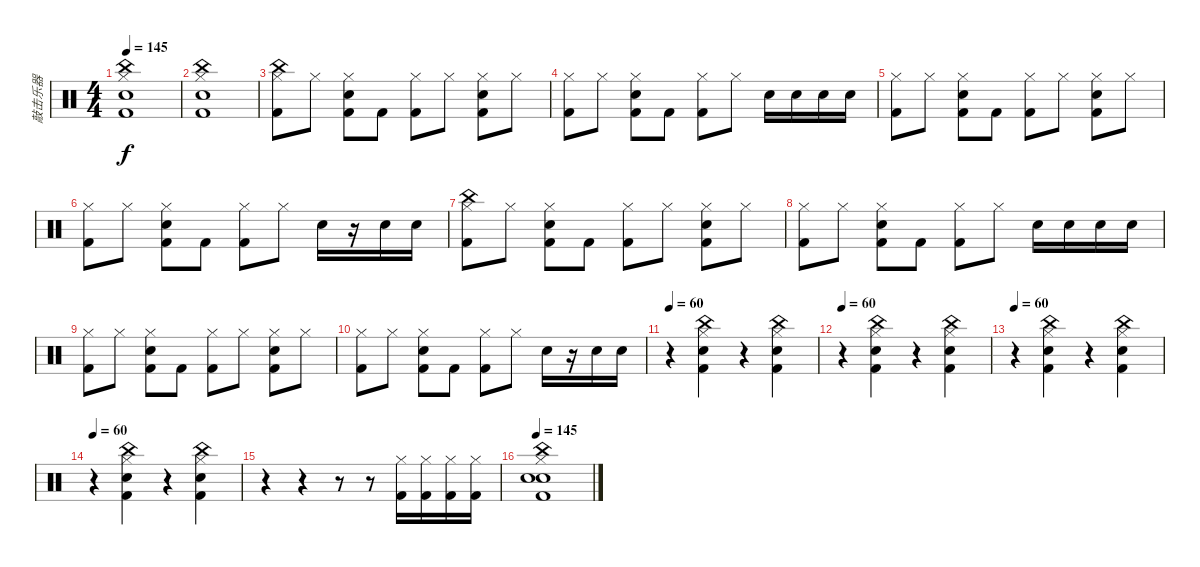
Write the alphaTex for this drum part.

\track ("敲击乐器" "敲击乐器") {instrument percussion}
\staff {score}
\articulation defaults
\ts (4 4)
\tempo 145
\clef neutral
\ks c
("China (hit)" "Hi-Hat (closed)" "Kick (hit) 2" "Electric Snare (hit)").1{dy f} |
("China (hit)" "Hi-Hat (closed)" "Kick (hit) 2" "Electric Snare (hit)").1 |
("Kick (hit) 2" "Hi-Hat (closed)" "China (hit)").8 "Hi-Hat (closed)".8 ("Electric Snare (hit)" "Kick (hit) 2" "Hi-Hat (closed)").8 "Kick (hit) 2".8 ("Kick (hit) 2" "Hi-Hat (closed)").8 "Hi-Hat (closed)".8 ("Electric Snare (hit)" "Kick (hit) 2" "Hi-Hat (closed)").8 "Hi-Hat (closed)".8 |
("Kick (hit) 2" "Hi-Hat (closed)").8 "Hi-Hat (closed)".8 ("Electric Snare (hit)" "Kick (hit) 2" "Hi-Hat (closed)").8 "Kick (hit) 2".8 ("Kick (hit) 2" "Hi-Hat (closed)").8 "Hi-Hat (closed)".8 "Electric Snare (hit)".16 "Electric Snare (hit)".16 "Electric Snare (hit)".16 "Electric Snare (hit)".16 |
("Kick (hit) 2" "Hi-Hat (closed)").8 "Hi-Hat (closed)".8 ("Electric Snare (hit)" "Kick (hit) 2" "Hi-Hat (closed)").8 "Kick (hit) 2".8 ("Kick (hit) 2" "Hi-Hat (closed)").8 "Hi-Hat (closed)".8 ("Electric Snare (hit)" "Kick (hit) 2" "Hi-Hat (closed)").8 "Hi-Hat (closed)".8 |
("Kick (hit) 2" "Hi-Hat (closed)").8 "Hi-Hat (closed)".8 ("Electric Snare (hit)" "Kick (hit) 2" "Hi-Hat (closed)").8 "Kick (hit) 2".8 ("Kick (hit) 2" "Hi-Hat (closed)").8 "Hi-Hat (closed)".8 "Electric Snare (hit)".16 r.16 "Electric Snare (hit)".16 "Electric Snare (hit)".16 |
("Kick (hit) 2" "Hi-Hat (closed)" "China (hit)").8 "Hi-Hat (closed)".8 ("Electric Snare (hit)" "Kick (hit) 2" "Hi-Hat (closed)").8 "Kick (hit) 2".8 ("Kick (hit) 2" "Hi-Hat (closed)").8 "Hi-Hat (closed)".8 ("Electric Snare (hit)" "Kick (hit) 2" "Hi-Hat (closed)").8 "Hi-Hat (closed)".8 |
("Kick (hit) 2" "Hi-Hat (closed)").8 "Hi-Hat (closed)".8 ("Electric Snare (hit)" "Kick (hit) 2" "Hi-Hat (closed)").8 "Kick (hit) 2".8 ("Kick (hit) 2" "Hi-Hat (closed)").8 "Hi-Hat (closed)".8 "Electric Snare (hit)".16 "Electric Snare (hit)".16 "Electric Snare (hit)".16 "Electric Snare (hit)".16 |
("Kick (hit) 2" "Hi-Hat (closed)").8 "Hi-Hat (closed)".8 ("Electric Snare (hit)" "Kick (hit) 2" "Hi-Hat (closed)").8 "Kick (hit) 2".8 ("Kick (hit) 2" "Hi-Hat (closed)").8 "Hi-Hat (closed)".8 ("Electric Snare (hit)" "Kick (hit) 2" "Hi-Hat (closed)").8 "Hi-Hat (closed)".8 |
("Kick (hit) 2" "Hi-Hat (closed)").8 "Hi-Hat (closed)".8 ("Electric Snare (hit)" "Kick (hit) 2" "Hi-Hat (closed)").8 "Kick (hit) 2".8 ("Kick (hit) 2" "Hi-Hat (closed)").8 "Hi-Hat (closed)".8 "Electric Snare (hit)".16 r.16 "Electric Snare (hit)".16 "Electric Snare (hit)".16 |
\tempo 60
r.4 ("China (hit)" "Electric Snare (hit)" "Kick (hit) 2" "Hi-Hat (closed)").4 r.4 ("Hi-Hat (closed)" "Electric Snare (hit)" "Kick (hit) 2" "China (hit)").4 |
\tempo 60
r.4 ("China (hit)" "Electric Snare (hit)" "Kick (hit) 2" "Hi-Hat (closed)").4 r.4 ("Hi-Hat (closed)" "Electric Snare (hit)" "Kick (hit) 2" "China (hit)").4 |
\tempo 60
r.4 ("China (hit)" "Electric Snare (hit)" "Kick (hit) 2" "Hi-Hat (closed)").4 r.4 ("Hi-Hat (closed)" "Electric Snare (hit)" "Kick (hit) 2" "China (hit)").4 |
\tempo 60
r.4 ("China (hit)" "Electric Snare (hit)" "Kick (hit) 2" "Hi-Hat (closed)").4 r.4 ("Hi-Hat (closed)" "Electric Snare (hit)" "Kick (hit) 2" "China (hit)").4 |
r.4 r.4 r.8 r.8 ("Kick (hit) 2" "Hi-Hat (closed)").16 ("Kick (hit) 2" "Hi-Hat (closed)").16 ("Kick (hit) 2" "Hi-Hat (closed)").16 ("Kick (hit) 2" "Hi-Hat (closed)").16 |
\tempo 145
("China (hit)" "Hi-Hat (closed)" "Kick (hit) 2" "Snare (hit) 2" "Electric Snare (hit)").1
